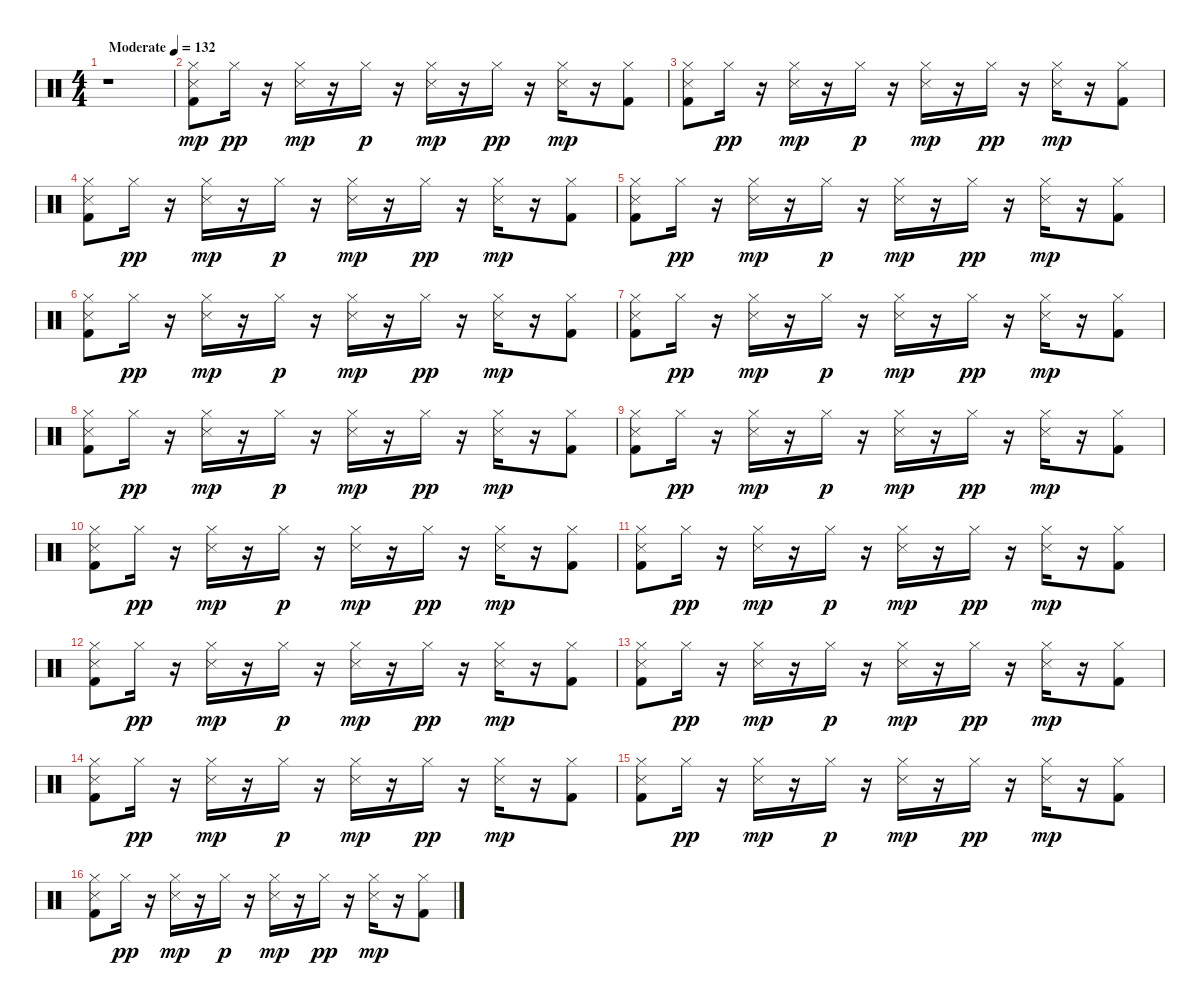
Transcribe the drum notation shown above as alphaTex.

\track "" {instrument percussion}
\staff {score}
\articulation defaults
\ts (4 4)
\tempo (132 "Moderate")
\clef neutral
\ks c
r.1{dy mp} |
("Snare (side stick) 3" "Hi-Hat (closed)" "Kick (hit) 2").8 "Hi-Hat (closed)".16{dy pp} r.16 ("Snare (side stick) 3" "Hi-Hat (closed)").16{dy mp} r.16 "Hi-Hat (closed)".16{dy p} r.16 ("Snare (side stick) 3" "Hi-Hat (closed)").16{dy mp} r.16 "Hi-Hat (closed)".16{dy pp} r.16 ("Snare (side stick) 3" "Hi-Hat (closed)").16{dy mp} r.16 ("Hi-Hat (closed)" "Kick (hit) 2").8 |
("Snare (side stick) 3" "Hi-Hat (closed)" "Kick (hit) 2").8 "Hi-Hat (closed)".16{dy pp} r.16 ("Snare (side stick) 3" "Hi-Hat (closed)").16{dy mp} r.16 "Hi-Hat (closed)".16{dy p} r.16 ("Snare (side stick) 3" "Hi-Hat (closed)").16{dy mp} r.16 "Hi-Hat (closed)".16{dy pp} r.16 ("Snare (side stick) 3" "Hi-Hat (closed)").16{dy mp} r.16 ("Hi-Hat (closed)" "Kick (hit) 2").8 |
("Snare (side stick) 3" "Hi-Hat (closed)" "Kick (hit) 2").8 "Hi-Hat (closed)".16{dy pp} r.16 ("Snare (side stick) 3" "Hi-Hat (closed)").16{dy mp} r.16 "Hi-Hat (closed)".16{dy p} r.16 ("Snare (side stick) 3" "Hi-Hat (closed)").16{dy mp} r.16 "Hi-Hat (closed)".16{dy pp} r.16 ("Snare (side stick) 3" "Hi-Hat (closed)").16{dy mp} r.16 ("Hi-Hat (closed)" "Kick (hit) 2").8 |
("Snare (side stick) 3" "Hi-Hat (closed)" "Kick (hit) 2").8 "Hi-Hat (closed)".16{dy pp} r.16 ("Snare (side stick) 3" "Hi-Hat (closed)").16{dy mp} r.16 "Hi-Hat (closed)".16{dy p} r.16 ("Snare (side stick) 3" "Hi-Hat (closed)").16{dy mp} r.16 "Hi-Hat (closed)".16{dy pp} r.16 ("Snare (side stick) 3" "Hi-Hat (closed)").16{dy mp} r.16 ("Hi-Hat (closed)" "Kick (hit) 2").8 |
("Snare (side stick) 3" "Hi-Hat (closed)" "Kick (hit) 2").8 "Hi-Hat (closed)".16{dy pp} r.16 ("Snare (side stick) 3" "Hi-Hat (closed)").16{dy mp} r.16 "Hi-Hat (closed)".16{dy p} r.16 ("Snare (side stick) 3" "Hi-Hat (closed)").16{dy mp} r.16 "Hi-Hat (closed)".16{dy pp} r.16 ("Snare (side stick) 3" "Hi-Hat (closed)").16{dy mp} r.16 ("Hi-Hat (closed)" "Kick (hit) 2").8 |
("Snare (side stick) 3" "Hi-Hat (closed)" "Kick (hit) 2").8 "Hi-Hat (closed)".16{dy pp} r.16 ("Snare (side stick) 3" "Hi-Hat (closed)").16{dy mp} r.16 "Hi-Hat (closed)".16{dy p} r.16 ("Snare (side stick) 3" "Hi-Hat (closed)").16{dy mp} r.16 "Hi-Hat (closed)".16{dy pp} r.16 ("Snare (side stick) 3" "Hi-Hat (closed)").16{dy mp} r.16 ("Hi-Hat (closed)" "Kick (hit) 2").8 |
("Snare (side stick) 3" "Hi-Hat (closed)" "Kick (hit) 2").8 "Hi-Hat (closed)".16{dy pp} r.16 ("Snare (side stick) 3" "Hi-Hat (closed)").16{dy mp} r.16 "Hi-Hat (closed)".16{dy p} r.16 ("Snare (side stick) 3" "Hi-Hat (closed)").16{dy mp} r.16 "Hi-Hat (closed)".16{dy pp} r.16 ("Snare (side stick) 3" "Hi-Hat (closed)").16{dy mp} r.16 ("Hi-Hat (closed)" "Kick (hit) 2").8 |
("Snare (side stick) 3" "Hi-Hat (closed)" "Kick (hit) 2").8 "Hi-Hat (closed)".16{dy pp} r.16 ("Snare (side stick) 3" "Hi-Hat (closed)").16{dy mp} r.16 "Hi-Hat (closed)".16{dy p} r.16 ("Snare (side stick) 3" "Hi-Hat (closed)").16{dy mp} r.16 "Hi-Hat (closed)".16{dy pp} r.16 ("Snare (side stick) 3" "Hi-Hat (closed)").16{dy mp} r.16 ("Hi-Hat (closed)" "Kick (hit) 2").8 |
("Snare (side stick) 3" "Hi-Hat (closed)" "Kick (hit) 2").8 "Hi-Hat (closed)".16{dy pp} r.16 ("Snare (side stick) 3" "Hi-Hat (closed)").16{dy mp} r.16 "Hi-Hat (closed)".16{dy p} r.16 ("Snare (side stick) 3" "Hi-Hat (closed)").16{dy mp} r.16 "Hi-Hat (closed)".16{dy pp} r.16 ("Snare (side stick) 3" "Hi-Hat (closed)").16{dy mp} r.16 ("Hi-Hat (closed)" "Kick (hit) 2").8 |
("Snare (side stick) 3" "Hi-Hat (closed)" "Kick (hit) 2").8 "Hi-Hat (closed)".16{dy pp} r.16 ("Snare (side stick) 3" "Hi-Hat (closed)").16{dy mp} r.16 "Hi-Hat (closed)".16{dy p} r.16 ("Snare (side stick) 3" "Hi-Hat (closed)").16{dy mp} r.16 "Hi-Hat (closed)".16{dy pp} r.16 ("Snare (side stick) 3" "Hi-Hat (closed)").16{dy mp} r.16 ("Hi-Hat (closed)" "Kick (hit) 2").8 |
("Snare (side stick) 3" "Hi-Hat (closed)" "Kick (hit) 2").8 "Hi-Hat (closed)".16{dy pp} r.16 ("Snare (side stick) 3" "Hi-Hat (closed)").16{dy mp} r.16 "Hi-Hat (closed)".16{dy p} r.16 ("Snare (side stick) 3" "Hi-Hat (closed)").16{dy mp} r.16 "Hi-Hat (closed)".16{dy pp} r.16 ("Snare (side stick) 3" "Hi-Hat (closed)").16{dy mp} r.16 ("Hi-Hat (closed)" "Kick (hit) 2").8 |
("Snare (side stick) 3" "Hi-Hat (closed)" "Kick (hit) 2").8 "Hi-Hat (closed)".16{dy pp} r.16 ("Snare (side stick) 3" "Hi-Hat (closed)").16{dy mp} r.16 "Hi-Hat (closed)".16{dy p} r.16 ("Snare (side stick) 3" "Hi-Hat (closed)").16{dy mp} r.16 "Hi-Hat (closed)".16{dy pp} r.16 ("Snare (side stick) 3" "Hi-Hat (closed)").16{dy mp} r.16 ("Hi-Hat (closed)" "Kick (hit) 2").8 |
("Snare (side stick) 3" "Hi-Hat (closed)" "Kick (hit) 2").8 "Hi-Hat (closed)".16{dy pp} r.16 ("Snare (side stick) 3" "Hi-Hat (closed)").16{dy mp} r.16 "Hi-Hat (closed)".16{dy p} r.16 ("Snare (side stick) 3" "Hi-Hat (closed)").16{dy mp} r.16 "Hi-Hat (closed)".16{dy pp} r.16 ("Snare (side stick) 3" "Hi-Hat (closed)").16{dy mp} r.16 ("Hi-Hat (closed)" "Kick (hit) 2").8 |
("Snare (side stick) 3" "Hi-Hat (closed)" "Kick (hit) 2").8 "Hi-Hat (closed)".16{dy pp} r.16 ("Snare (side stick) 3" "Hi-Hat (closed)").16{dy mp} r.16 "Hi-Hat (closed)".16{dy p} r.16 ("Snare (side stick) 3" "Hi-Hat (closed)").16{dy mp} r.16 "Hi-Hat (closed)".16{dy pp} r.16 ("Snare (side stick) 3" "Hi-Hat (closed)").16{dy mp} r.16 ("Hi-Hat (closed)" "Kick (hit) 2").8 |
("Snare (side stick) 3" "Hi-Hat (closed)" "Kick (hit) 2").8 "Hi-Hat (closed)".16{dy pp} r.16 ("Snare (side stick) 3" "Hi-Hat (closed)").16{dy mp} r.16 "Hi-Hat (closed)".16{dy p} r.16 ("Snare (side stick) 3" "Hi-Hat (closed)").16{dy mp} r.16 "Hi-Hat (closed)".16{dy pp} r.16 ("Snare (side stick) 3" "Hi-Hat (closed)").16{dy mp} r.16 ("Hi-Hat (closed)" "Kick (hit) 2").8
